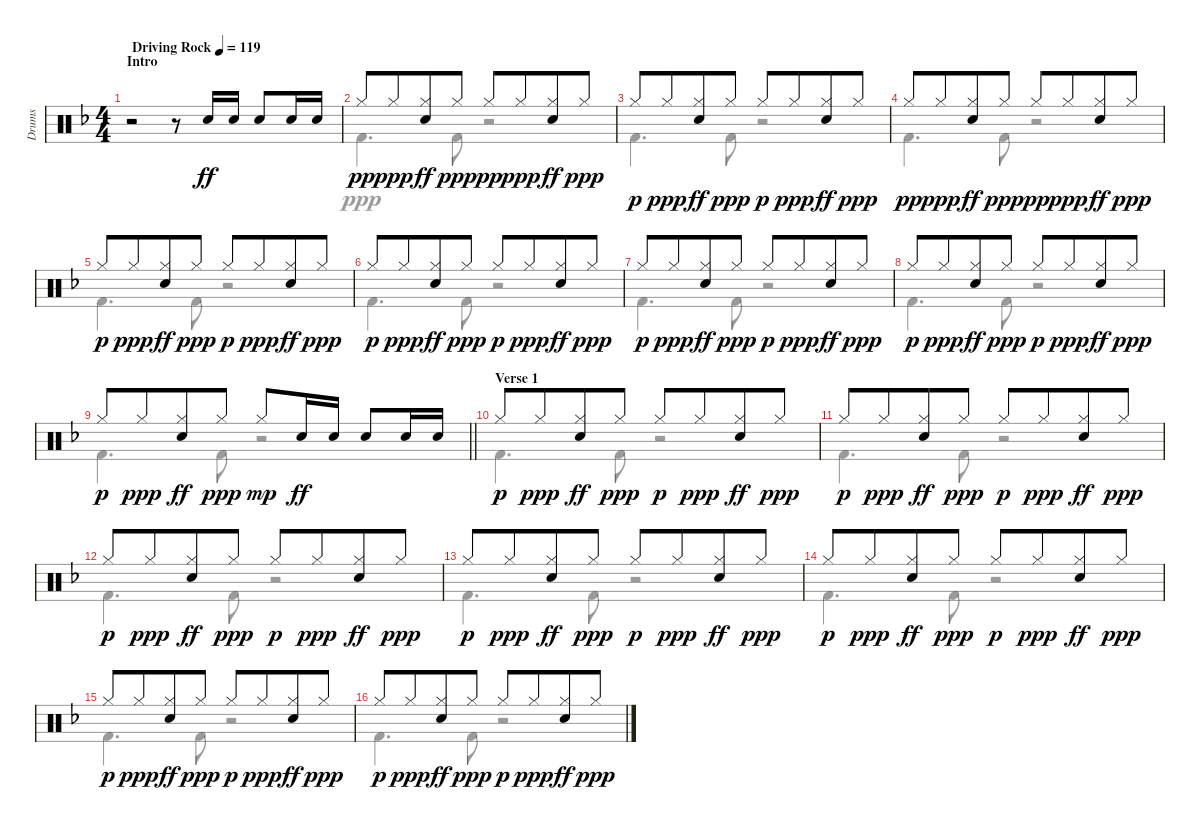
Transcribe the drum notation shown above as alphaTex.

\track ("Drums" "Drums") {instrument percussion}
\staff {score}
\articulation defaults
\voice
\ts (4 4)
\section ("" "Intro")
\tempo (119 "Driving Rock")
\clef neutral
\ks f
r.2{dy ff} r.8 "Electric Snare (hit)".16{beam Up} "Electric Snare (hit)".16{beam Up} "Electric Snare (hit)".8{beam Up} "Electric Snare (hit)".16{beam Up} "Electric Snare (hit)".16{beam Up} |
"Hi-Hat (closed)".8{dy pp} "Hi-Hat (closed)".8{dy ppp beam merge} ("Hi-Hat (closed)" "Electric Snare (hit)").8{dy ff} "Hi-Hat (closed)".8{dy ppp} "Hi-Hat (closed)".8{dy pp} "Hi-Hat (closed)".8{dy ppp beam merge} ("Hi-Hat (closed)" "Electric Snare (hit)").8{dy ff} "Hi-Hat (closed)".8{dy ppp} |
"Hi-Hat (closed)".8{dy p} "Hi-Hat (closed)".8{dy ppp beam merge} ("Hi-Hat (closed)" "Electric Snare (hit)").8{dy ff} "Hi-Hat (closed)".8{dy ppp} "Hi-Hat (closed)".8{dy p} "Hi-Hat (closed)".8{dy ppp beam merge} ("Hi-Hat (closed)" "Electric Snare (hit)").8{dy ff} "Hi-Hat (closed)".8{dy ppp} |
"Hi-Hat (closed)".8{dy pp} "Hi-Hat (closed)".8{dy ppp beam merge} ("Hi-Hat (closed)" "Electric Snare (hit)").8{dy ff} "Hi-Hat (closed)".8{dy ppp} "Hi-Hat (closed)".8{dy pp} "Hi-Hat (closed)".8{dy ppp beam merge} ("Hi-Hat (closed)" "Electric Snare (hit)").8{dy ff} "Hi-Hat (closed)".8{dy ppp} |
"Hi-Hat (closed)".8{dy p} "Hi-Hat (closed)".8{dy ppp beam merge} ("Hi-Hat (closed)" "Electric Snare (hit)").8{dy ff} "Hi-Hat (closed)".8{dy ppp} "Hi-Hat (closed)".8{dy p} "Hi-Hat (closed)".8{dy ppp beam merge} ("Hi-Hat (closed)" "Electric Snare (hit)").8{dy ff} "Hi-Hat (closed)".8{dy ppp} |
"Hi-Hat (closed)".8{dy p} "Hi-Hat (closed)".8{dy ppp beam merge} ("Hi-Hat (closed)" "Electric Snare (hit)").8{dy ff} "Hi-Hat (closed)".8{dy ppp} "Hi-Hat (closed)".8{dy p} "Hi-Hat (closed)".8{dy ppp beam merge} ("Hi-Hat (closed)" "Electric Snare (hit)").8{dy ff} "Hi-Hat (closed)".8{dy ppp} |
"Hi-Hat (closed)".8{dy p} "Hi-Hat (closed)".8{dy ppp beam merge} ("Hi-Hat (closed)" "Electric Snare (hit)").8{dy ff} "Hi-Hat (closed)".8{dy ppp} "Hi-Hat (closed)".8{dy p} "Hi-Hat (closed)".8{dy ppp beam merge} ("Hi-Hat (closed)" "Electric Snare (hit)").8{dy ff} "Hi-Hat (closed)".8{dy ppp} |
"Hi-Hat (closed)".8{dy p} "Hi-Hat (closed)".8{dy ppp beam merge} ("Hi-Hat (closed)" "Electric Snare (hit)").8{dy ff} "Hi-Hat (closed)".8{dy ppp} "Hi-Hat (closed)".8{dy p} "Hi-Hat (closed)".8{dy ppp beam merge} ("Hi-Hat (closed)" "Electric Snare (hit)").8{dy ff} "Hi-Hat (closed)".8{dy ppp} |
\barLineRight lightlight "Hi-Hat (closed)".8{dy p} "Hi-Hat (closed)".8{dy ppp beam merge}
("Hi-Hat (closed)" "Electric Snare (hit)").8{dy ff} "Hi-Hat (closed)".8{dy ppp} "Hi-Hat (closed)".8{dy mp} "Electric Snare (hit)".16{dy ff} "Electric Snare (hit)".16 "Electric Snare (hit)".8 "Electric Snare (hit)".16 "Electric Snare (hit)".16 |
\section ("" "Verse 1")
"Hi-Hat (closed)".8{dy p} "Hi-Hat (closed)".8{dy ppp beam merge} ("Hi-Hat (closed)" "Electric Snare (hit)").8{dy ff} "Hi-Hat (closed)".8{dy ppp} "Hi-Hat (closed)".8{dy p} "Hi-Hat (closed)".8{dy ppp beam merge} ("Hi-Hat (closed)" "Electric Snare (hit)").8{dy ff} "Hi-Hat (closed)".8{dy ppp} |
"Hi-Hat (closed)".8{dy p} "Hi-Hat (closed)".8{dy ppp beam merge} ("Hi-Hat (closed)" "Electric Snare (hit)").8{dy ff} "Hi-Hat (closed)".8{dy ppp} "Hi-Hat (closed)".8{dy p} "Hi-Hat (closed)".8{dy ppp beam merge} ("Hi-Hat (closed)" "Electric Snare (hit)").8{dy ff} "Hi-Hat (closed)".8{dy ppp} |
"Hi-Hat (closed)".8{dy p} "Hi-Hat (closed)".8{dy ppp beam merge} ("Hi-Hat (closed)" "Electric Snare (hit)").8{dy ff} "Hi-Hat (closed)".8{dy ppp} "Hi-Hat (closed)".8{dy p} "Hi-Hat (closed)".8{dy ppp beam merge} ("Hi-Hat (closed)" "Electric Snare (hit)").8{dy ff} "Hi-Hat (closed)".8{dy ppp} |
"Hi-Hat (closed)".8{dy p} "Hi-Hat (closed)".8{dy ppp beam merge} ("Hi-Hat (closed)" "Electric Snare (hit)").8{dy ff} "Hi-Hat (closed)".8{dy ppp} "Hi-Hat (closed)".8{dy p} "Hi-Hat (closed)".8{dy ppp beam merge} ("Hi-Hat (closed)" "Electric Snare (hit)").8{dy ff} "Hi-Hat (closed)".8{dy ppp} |
"Hi-Hat (closed)".8{dy p} "Hi-Hat (closed)".8{dy ppp beam merge} ("Hi-Hat (closed)" "Electric Snare (hit)").8{dy ff} "Hi-Hat (closed)".8{dy ppp} "Hi-Hat (closed)".8{dy p} "Hi-Hat (closed)".8{dy ppp beam merge} ("Hi-Hat (closed)" "Electric Snare (hit)").8{dy ff} "Hi-Hat (closed)".8{dy ppp} |
"Hi-Hat (closed)".8{dy p} "Hi-Hat (closed)".8{dy ppp beam merge} ("Hi-Hat (closed)" "Electric Snare (hit)").8{dy ff} "Hi-Hat (closed)".8{dy ppp} "Hi-Hat (closed)".8{dy p} "Hi-Hat (closed)".8{dy ppp beam merge} ("Hi-Hat (closed)" "Electric Snare (hit)").8{dy ff} "Hi-Hat (closed)".8{dy ppp} |
"Hi-Hat (closed)".8{dy p} "Hi-Hat (closed)".8{dy ppp beam merge} ("Hi-Hat (closed)" "Electric Snare (hit)").8{dy ff} "Hi-Hat (closed)".8{dy ppp} "Hi-Hat (closed)".8{dy p} "Hi-Hat (closed)".8{dy ppp beam merge} ("Hi-Hat (closed)" "Electric Snare (hit)").8{dy ff} "Hi-Hat (closed)".8{dy ppp}
\voice
\clef neutral
\ottava regular
\simile none
\ks f
|
"Kick (hit) 2".4{d} "Kick (hit) 2".8 r.2 |
"Kick (hit) 2".4{d} "Kick (hit) 2".8 r.2 |
"Kick (hit) 2".4{d} "Kick (hit) 2".8 r.2 |
"Kick (hit) 2".4{d} "Kick (hit) 2".8 r.2 |
"Kick (hit) 2".4{d} "Kick (hit) 2".8 r.2 |
"Kick (hit) 2".4{d} "Kick (hit) 2".8 r.2 |
"Kick (hit) 2".4{d} "Kick (hit) 2".8 r.2 |
\barLineRight lightlight "Kick (hit) 2".4{d} "Kick (hit) 2".8
r.2 |
"Kick (hit) 2".4{d} "Kick (hit) 2".8 r.2 |
"Kick (hit) 2".4{d} "Kick (hit) 2".8 r.2 |
"Kick (hit) 2".4{d} "Kick (hit) 2".8 r.2 |
"Kick (hit) 2".4{d} "Kick (hit) 2".8 r.2 |
"Kick (hit) 2".4{d} "Kick (hit) 2".8 r.2 |
"Kick (hit) 2".4{d} "Kick (hit) 2".8 r.2 |
"Kick (hit) 2".4{d} "Kick (hit) 2".8 r.2
